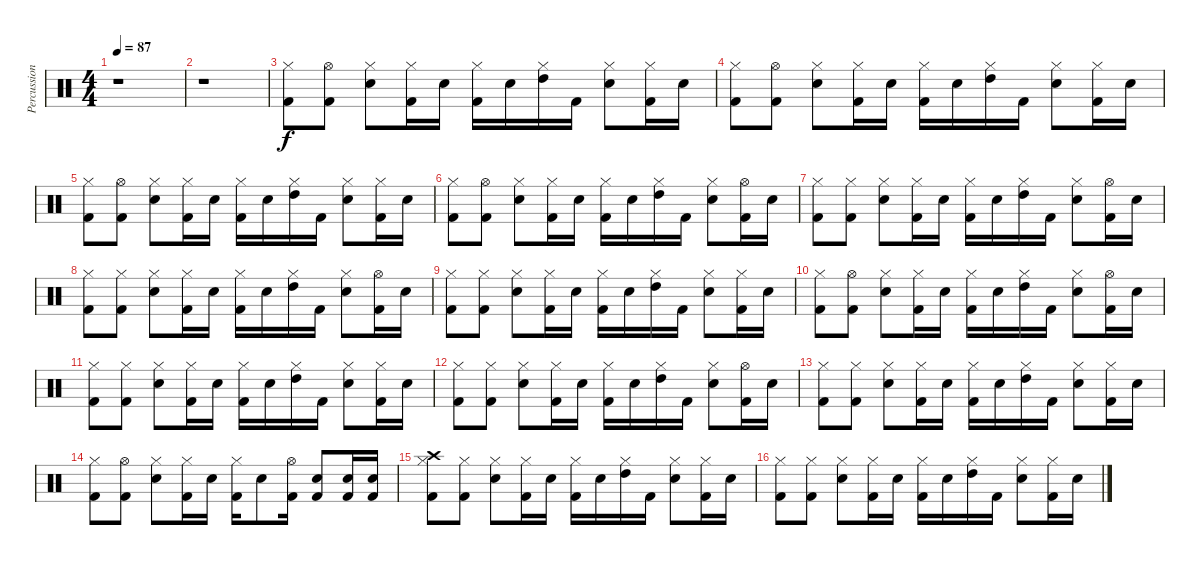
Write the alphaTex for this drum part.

\track ("Percussions" "Percussion") {instrument percussion}
\staff {score}
\articulation defaults
\ts (4 4)
\tempo 87
\clef neutral
\ks c
r.1{dy f} |
r.1 |
("Hi-Hat (closed)" "Kick (hit) 2").8 ("Hi-Hat (open)" "Kick (hit) 2").8 ("Hi-Hat (closed)" "Electric Snare (hit)").8 ("Hi-Hat (closed)" "Kick (hit) 2").16 "Electric Snare (hit)".16 ("Hi-Hat (closed)" "Kick (hit) 2").16 "Electric Snare (hit)".16 ("Hi-Hat (closed)" "High Tom (hit)").16 "Kick (hit) 2".16 ("Hi-Hat (closed)" "Electric Snare (hit)").8 ("Hi-Hat (closed)" "Kick (hit) 2").16 "Electric Snare (hit)".16 |
("Hi-Hat (closed)" "Kick (hit) 2").8 ("Hi-Hat (open)" "Kick (hit) 2").8 ("Hi-Hat (closed)" "Electric Snare (hit)").8 ("Hi-Hat (closed)" "Kick (hit) 2").16 "Electric Snare (hit)".16 ("Hi-Hat (closed)" "Kick (hit) 2").16 "Electric Snare (hit)".16 ("Hi-Hat (closed)" "High Tom (hit)").16 "Kick (hit) 2".16 ("Hi-Hat (closed)" "Electric Snare (hit)").8 ("Hi-Hat (closed)" "Kick (hit) 2").16 "Electric Snare (hit)".16 |
("Hi-Hat (closed)" "Kick (hit) 2").8 ("Hi-Hat (open)" "Kick (hit) 2").8 ("Hi-Hat (closed)" "Electric Snare (hit)").8 ("Hi-Hat (closed)" "Kick (hit) 2").16 "Electric Snare (hit)".16 ("Hi-Hat (closed)" "Kick (hit) 2").16 "Electric Snare (hit)".16 ("Hi-Hat (closed)" "High Tom (hit)").16 "Kick (hit) 2".16 ("Hi-Hat (closed)" "Electric Snare (hit)").8 ("Hi-Hat (closed)" "Kick (hit) 2").16 "Electric Snare (hit)".16 |
("Hi-Hat (closed)" "Kick (hit) 2").8 ("Hi-Hat (open)" "Kick (hit) 2").8 ("Hi-Hat (closed)" "Electric Snare (hit)").8 ("Hi-Hat (closed)" "Kick (hit) 2").16 "Electric Snare (hit)".16 ("Hi-Hat (closed)" "Kick (hit) 2").16 "Electric Snare (hit)".16 ("Hi-Hat (closed)" "High Tom (hit)").16 "Kick (hit) 2".16 ("Hi-Hat (closed)" "Electric Snare (hit)").8 ("Hi-Hat (open)" "Kick (hit) 2").16 "Electric Snare (hit)".16 |
("Hi-Hat (closed)" "Kick (hit) 2").8 ("Hi-Hat (closed)" "Kick (hit) 2").8 ("Hi-Hat (closed)" "Electric Snare (hit)").8 ("Hi-Hat (closed)" "Kick (hit) 2").16 "Electric Snare (hit)".16 ("Hi-Hat (closed)" "Kick (hit) 2").16 "Electric Snare (hit)".16 ("Hi-Hat (closed)" "High Tom (hit)").16 "Kick (hit) 2".16 ("Hi-Hat (closed)" "Electric Snare (hit)").8 ("Hi-Hat (open)" "Kick (hit) 2").16 "Electric Snare (hit)".16 |
("Hi-Hat (closed)" "Kick (hit) 2").8 ("Hi-Hat (closed)" "Kick (hit) 2").8 ("Hi-Hat (closed)" "Electric Snare (hit)").8 ("Hi-Hat (closed)" "Kick (hit) 2").16 "Electric Snare (hit)".16 ("Hi-Hat (closed)" "Kick (hit) 2").16 "Electric Snare (hit)".16 ("Hi-Hat (closed)" "High Tom (hit)").16 "Kick (hit) 2".16 ("Hi-Hat (closed)" "Electric Snare (hit)").8 ("Hi-Hat (open)" "Kick (hit) 2").16 "Electric Snare (hit)".16 |
("Hi-Hat (closed)" "Kick (hit) 2").8 ("Hi-Hat (closed)" "Kick (hit) 2").8 ("Hi-Hat (closed)" "Electric Snare (hit)").8 ("Hi-Hat (closed)" "Kick (hit) 2").16 "Electric Snare (hit)".16 ("Hi-Hat (closed)" "Kick (hit) 2").16 "Electric Snare (hit)".16 ("Hi-Hat (closed)" "High Tom (hit)").16 "Kick (hit) 2".16 ("Hi-Hat (closed)" "Electric Snare (hit)").8 ("Hi-Hat (closed)" "Kick (hit) 2").16 "Electric Snare (hit)".16 |
("Hi-Hat (closed)" "Kick (hit) 2").8 ("Hi-Hat (open)" "Kick (hit) 2").8 ("Hi-Hat (closed)" "Electric Snare (hit)").8 ("Hi-Hat (closed)" "Kick (hit) 2").16 "Electric Snare (hit)".16 ("Hi-Hat (closed)" "Kick (hit) 2").16 "Electric Snare (hit)".16 ("Hi-Hat (closed)" "High Tom (hit)").16 "Kick (hit) 2".16 ("Hi-Hat (closed)" "Electric Snare (hit)").8 ("Hi-Hat (open)" "Kick (hit) 2").16 "Electric Snare (hit)".16 |
("Hi-Hat (closed)" "Kick (hit) 2").8 ("Hi-Hat (closed)" "Kick (hit) 2").8 ("Hi-Hat (closed)" "Electric Snare (hit)").8 ("Hi-Hat (closed)" "Kick (hit) 2").16 "Electric Snare (hit)".16 ("Hi-Hat (closed)" "Kick (hit) 2").16 "Electric Snare (hit)".16 ("Hi-Hat (closed)" "High Tom (hit)").16 "Kick (hit) 2".16 ("Hi-Hat (closed)" "Electric Snare (hit)").8 ("Hi-Hat (closed)" "Kick (hit) 2").16 "Electric Snare (hit)".16 |
("Hi-Hat (closed)" "Kick (hit) 2").8 ("Hi-Hat (closed)" "Kick (hit) 2").8 ("Hi-Hat (closed)" "Electric Snare (hit)").8 ("Hi-Hat (closed)" "Kick (hit) 2").16 "Electric Snare (hit)".16 ("Hi-Hat (closed)" "Kick (hit) 2").16 "Electric Snare (hit)".16 ("Hi-Hat (closed)" "High Tom (hit)").16 "Kick (hit) 2".16 ("Hi-Hat (closed)" "Electric Snare (hit)").8 ("Hi-Hat (open)" "Kick (hit) 2").16 "Electric Snare (hit)".16 |
("Hi-Hat (closed)" "Kick (hit) 2").8 ("Hi-Hat (closed)" "Kick (hit) 2").8 ("Hi-Hat (closed)" "Electric Snare (hit)").8 ("Hi-Hat (closed)" "Kick (hit) 2").16 "Electric Snare (hit)".16 ("Hi-Hat (closed)" "Kick (hit) 2").16 "Electric Snare (hit)".16 ("Hi-Hat (closed)" "High Tom (hit)").16 "Kick (hit) 2".16 ("Hi-Hat (closed)" "Electric Snare (hit)").8 ("Hi-Hat (closed)" "Kick (hit) 2").16 "Electric Snare (hit)".16 |
("Hi-Hat (closed)" "Kick (hit) 2").8 ("Hi-Hat (open)" "Kick (hit) 2").8 ("Hi-Hat (closed)" "Electric Snare (hit)").8 ("Hi-Hat (closed)" "Kick (hit) 2").16 "Electric Snare (hit)".16 ("Hi-Hat (closed)" "Kick (hit) 2").16 "Electric Snare (hit)".8 ("Hi-Hat (open)" "Kick (hit) 2").16 ("Electric Snare (hit)" "Kick (hit) 2").8 ("Electric Snare (hit)" "Kick (hit) 2").16 ("Electric Snare (hit)" "Kick (hit) 2").16 |
("Crash high (hit)" "Hi-Hat (closed)" "Kick (hit) 2").8 ("Hi-Hat (closed)" "Kick (hit) 2").8 ("Hi-Hat (closed)" "Electric Snare (hit)").8 ("Hi-Hat (closed)" "Kick (hit) 2").16 "Electric Snare (hit)".16 ("Hi-Hat (closed)" "Kick (hit) 2").16 "Electric Snare (hit)".16 ("Hi-Hat (closed)" "High Tom (hit)").16 "Kick (hit) 2".16 ("Hi-Hat (closed)" "Electric Snare (hit)").8 ("Hi-Hat (closed)" "Kick (hit) 2").16 "Electric Snare (hit)".16 |
("Hi-Hat (closed)" "Kick (hit) 2").8 ("Hi-Hat (closed)" "Kick (hit) 2").8 ("Hi-Hat (closed)" "Electric Snare (hit)").8 ("Hi-Hat (closed)" "Kick (hit) 2").16 "Electric Snare (hit)".16 ("Hi-Hat (closed)" "Kick (hit) 2").16 "Electric Snare (hit)".16 ("Hi-Hat (closed)" "High Tom (hit)").16 "Kick (hit) 2".16 ("Hi-Hat (closed)" "Electric Snare (hit)").8 ("Hi-Hat (closed)" "Kick (hit) 2").16 "Electric Snare (hit)".16
